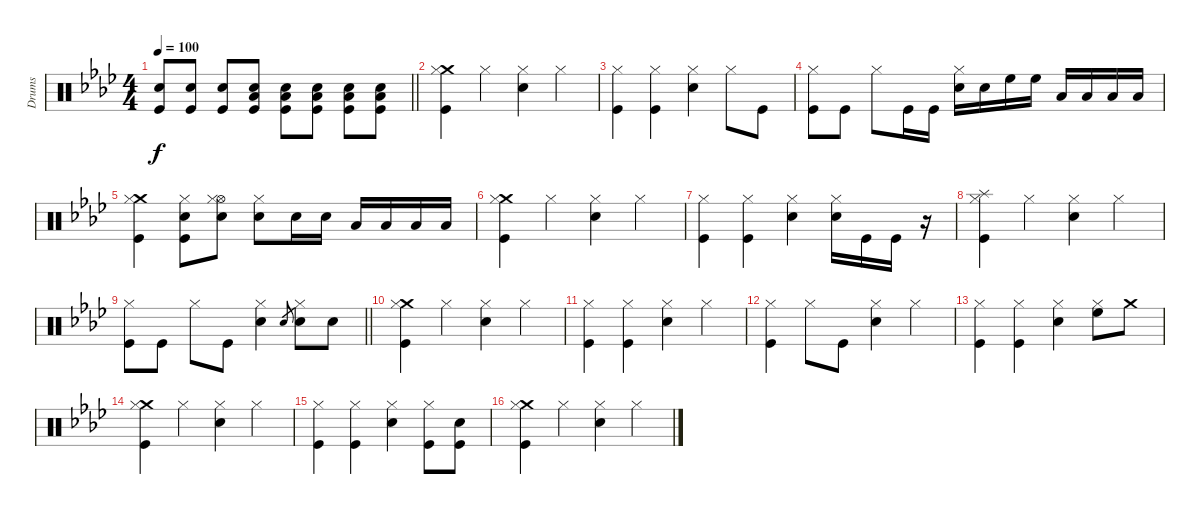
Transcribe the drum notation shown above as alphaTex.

\track ("Drums" "Drums") {instrument percussion}
\staff {score}
\articulation defaults
\ts (4 4)
\tempo 100
\clef neutral
\barLineRight lightlight
\ks ab
("Electric Snare (hit)" "Kick (hit)").8{dy f} ("Electric Snare (hit)" "Kick (hit)").8 ("Electric Snare (hit)" "Kick (hit)").8 ("Electric Snare (hit)" "Low Floor Tom (hit)" "Kick (hit)").8 ("Electric Snare (hit)" "Low Floor Tom (hit)" "Kick (hit)").8 ("Electric Snare (hit)" "Low Floor Tom (hit)" "Kick (hit)").8 ("Electric Snare (hit)" "Low Floor Tom (hit)" "Kick (hit)").8 ("Electric Snare (hit)" "Low Floor Tom (hit)" "Kick (hit)").8 |
("Crash medium (hit)" "Hi-Hat (closed)" "Kick (hit)").4 "Hi-Hat (closed)".4 ("Hi-Hat (closed)" "Electric Snare (hit)").4 "Hi-Hat (closed)".4 |
("Hi-Hat (closed)" "Kick (hit)").4 ("Hi-Hat (closed)" "Kick (hit)").4 ("Hi-Hat (closed)" "Electric Snare (hit)").4 "Hi-Hat (closed)".8 "Kick (hit)".8 |
("Hi-Hat (closed)" "Kick (hit)").8 "Kick (hit)".8 "Hi-Hat (closed)".8 "Kick (hit)".16 "Kick (hit)".16 ("Hi-Hat (closed)" "Electric Snare (hit)").16 "Electric Snare (hit)".16 "High Floor Tom (hit)".16 "High Floor Tom (hit)".16 "Low Tom (hit)".16 "Low Tom (hit)".16 "Low Floor Tom (hit)".16 "Low Floor Tom (hit)".16 |
("Crash medium (hit)" "Hi-Hat (closed)" "Kick (hit)").4 ("Hi-Hat (closed)" "Electric Snare (hit)" "Kick (hit)").8 ("Hi-Hat (open)" "Hi-Hat (closed)" "Electric Snare (hit)").8 ("Hi-Hat (closed)" "Electric Snare (hit)").8 "Electric Snare (hit)".16 "Electric Snare (hit)".16 "Low Tom (hit)".16 "Low Tom (hit)".16 "Low Floor Tom (hit)".16 "Low Floor Tom (hit)".16 |
("Crash medium (hit)" "Hi-Hat (closed)" "Kick (hit)").4 "Hi-Hat (closed)".4 ("Hi-Hat (closed)" "Electric Snare (hit)").4 "Hi-Hat (closed)".4 |
("Hi-Hat (closed)" "Kick (hit)").4 ("Hi-Hat (closed)" "Kick (hit)").4 ("Hi-Hat (closed)" "Electric Snare (hit)").4 ("Hi-Hat (closed)" "Electric Snare (hit)").16 "Kick (hit)".16 "Kick (hit)".16 r.16 |
("Splash (hit)" "Hi-Hat (closed)" "Kick (hit)").4 "Hi-Hat (closed)".4 ("Hi-Hat (closed)" "Electric Snare (hit)").4 "Hi-Hat (closed)".4 |
\barLineRight lightlight
("Hi-Hat (closed)" "Kick (hit)").8 "Kick (hit)".8 "Hi-Hat (closed)".8 "Kick (hit)".8 ("Hi-Hat (closed)" "Electric Snare (hit)").4 "Electric Snare (hit)".8{gr} ("Hi-Hat (closed)" "Electric Snare (hit)").8 "Electric Snare (hit)".8 |
("Crash medium (hit)" "Hi-Hat (closed)" "Kick (hit)").4 "Hi-Hat (closed)".4 ("Hi-Hat (closed)" "Electric Snare (hit)").4 "Hi-Hat (closed)".4 |
("Hi-Hat (closed)" "Kick (hit)").4 ("Hi-Hat (closed)" "Kick (hit)").4 ("Hi-Hat (closed)" "Electric Snare (hit)").4 "Hi-Hat (closed)".4 |
("Hi-Hat (closed)" "Kick (hit)").4 "Hi-Hat (closed)".8 "Kick (hit)".8 ("Hi-Hat (closed)" "Electric Snare (hit)").4 "Hi-Hat (closed)".4 |
("Hi-Hat (closed)" "Kick (hit)").4 ("Hi-Hat (closed)" "Kick (hit)").4 ("Hi-Hat (closed)" "Electric Snare (hit)").4 ("Hi-Hat (closed)" "High Floor Tom (hit)").8 "Crash medium (hit)".8 |
("Crash medium (hit)" "Hi-Hat (closed)" "Kick (hit)").4 "Hi-Hat (closed)".4 ("Hi-Hat (closed)" "Electric Snare (hit)").4 "Hi-Hat (closed)".4 |
("Hi-Hat (closed)" "Kick (hit)").4 ("Hi-Hat (closed)" "Kick (hit)").4 ("Hi-Hat (closed)" "Electric Snare (hit)").4 ("Hi-Hat (closed)" "Kick (hit)").8 ("Electric Snare (hit)" "Kick (hit)").8 |
("Crash medium (hit)" "Hi-Hat (closed)" "Kick (hit)").4 "Hi-Hat (closed)".4 ("Hi-Hat (closed)" "Electric Snare (hit)").4 "Hi-Hat (closed)".4
